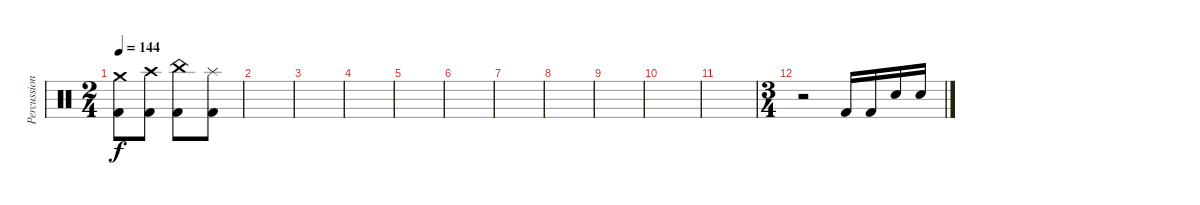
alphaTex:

\track ("Percussion" "Percussion") {instrument percussion}
\staff {score}
\articulation defaults
\ts (2 4)
\tempo 144
\clef neutral
\ks c
("Crash medium (hit)" "Kick (hit) 2").8{dy f} ("Crash high (hit)" "Kick (hit) 2").8 ("China (hit)" "Kick (hit) 2").8 ("Splash (hit)" "Kick (hit) 2").8 |
|
|
|
|
|
|
|
|
|
|
\ts (3 4)
r.2 "Kick (hit) 2".16 "Kick (hit) 2".16 "Electric Snare (hit)".16 "Electric Snare (hit)".16
